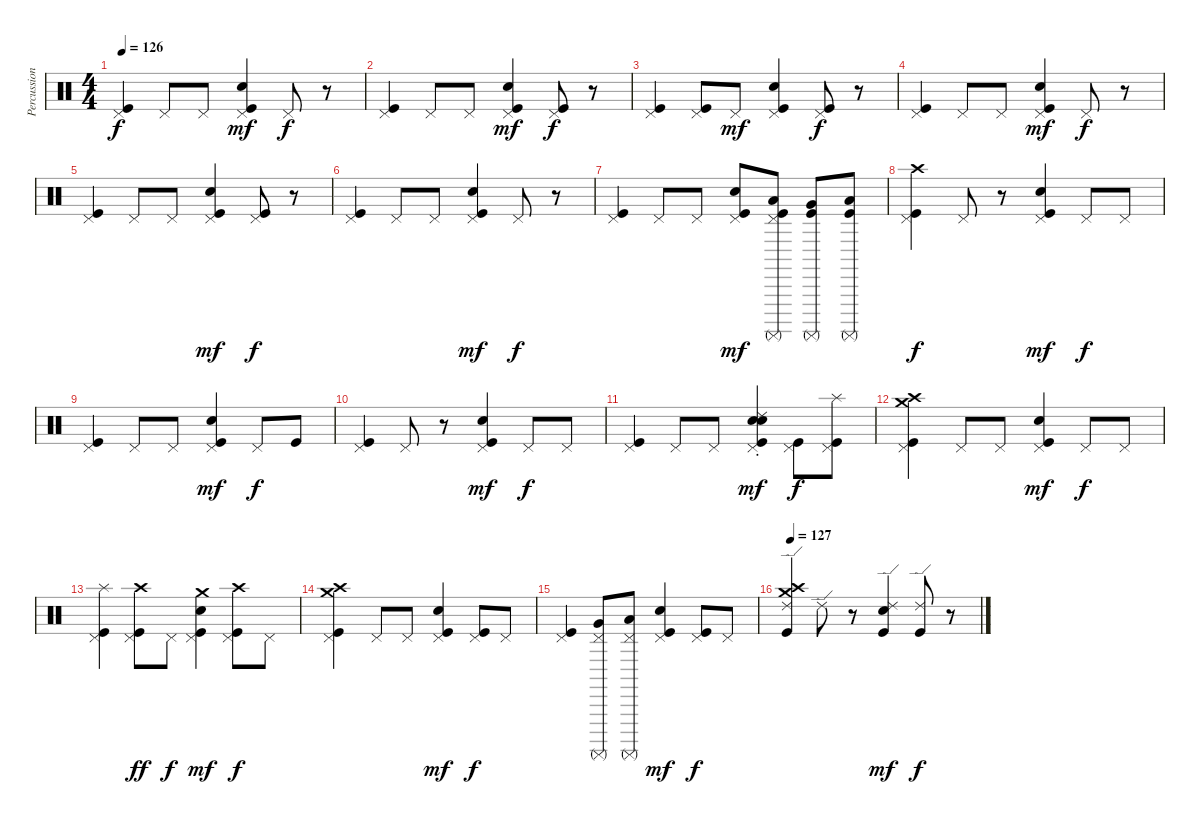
\track ("Percussion" "Percussion") {instrument percussion}
\staff {score}
\articulation defaults
\ts (4 4)
\tempo 126
\clef neutral
\ks c
("Pedal Hi-Hat (hit)" "Kick (hit)").4{dy f} "Pedal Hi-Hat (hit)".8 "Pedal Hi-Hat (hit)".8 ("Pedal Hi-Hat (hit)" "Kick (hit)" "Electric Snare (hit)").4{dy mf} "Pedal Hi-Hat (hit)".8{dy f} r.8 |
("Pedal Hi-Hat (hit)" "Kick (hit)").4 "Pedal Hi-Hat (hit)".8 "Pedal Hi-Hat (hit)".8 ("Pedal Hi-Hat (hit)" "Electric Snare (hit)" "Kick (hit)").4{dy mf} ("Pedal Hi-Hat (hit)" "Kick (hit)").8{dy f} r.8 |
("Pedal Hi-Hat (hit)" "Kick (hit)").4 ("Pedal Hi-Hat (hit)" "Kick (hit)").8 "Pedal Hi-Hat (hit)".8{dy mf} ("Pedal Hi-Hat (hit)" "Kick (hit)" "Electric Snare (hit)").4 ("Pedal Hi-Hat (hit)" "Kick (hit)").8{dy f} r.8 |
("Pedal Hi-Hat (hit)" "Kick (hit)").4 "Pedal Hi-Hat (hit)".8 "Pedal Hi-Hat (hit)".8 ("Pedal Hi-Hat (hit)" "Kick (hit)" "Electric Snare (hit)").4{dy mf} "Pedal Hi-Hat (hit)".8{dy f} r.8 |
("Pedal Hi-Hat (hit)" "Kick (hit)").4 "Pedal Hi-Hat (hit)".8 "Pedal Hi-Hat (hit)".8 ("Pedal Hi-Hat (hit)" "Electric Snare (hit)" "Kick (hit)").4{dy mf} ("Pedal Hi-Hat (hit)" "Kick (hit)").8{dy f} r.8 |
("Pedal Hi-Hat (hit)" "Kick (hit)").4 "Pedal Hi-Hat (hit)".8 "Pedal Hi-Hat (hit)".8 ("Pedal Hi-Hat (hit)" "Kick (hit)" "Electric Snare (hit)").4{dy mf} "Pedal Hi-Hat (hit)".8{dy f} r.8 |
("Pedal Hi-Hat (hit)" "Kick (hit)").4 "Pedal Hi-Hat (hit)".8 "Pedal Hi-Hat (hit)".8 ("Pedal Hi-Hat (hit)" "Electric Snare (hit)" "Kick (hit)").8{dy mf} ("Low Tom (hit)" "Pedal Hi-Hat (hit)" "Kick (hit)" "Surdo (mute)").8 ("Very Low Tom (hit)" "Kick (hit)" "Surdo (mute)").8 ("Low Floor Tom (hit)" "Kick (hit)" "Surdo (mute)").8 |
("Pedal Hi-Hat (hit)" "Kick (hit)" "Crash high (hit)").4{dy f} "Pedal Hi-Hat (hit)".8 r.8 ("Pedal Hi-Hat (hit)" "Kick (hit)" "Electric Snare (hit)").4{dy mf} "Pedal Hi-Hat (hit)".8{dy f} "Pedal Hi-Hat (hit)".8 |
("Pedal Hi-Hat (hit)" "Kick (hit)").4 "Pedal Hi-Hat (hit)".8 "Pedal Hi-Hat (hit)".8 ("Pedal Hi-Hat (hit)" "Electric Snare (hit)" "Kick (hit)").4{dy mf} "Pedal Hi-Hat (hit)".8{dy f} "Kick (hit)".8 |
("Pedal Hi-Hat (hit)" "Kick (hit)").4 "Pedal Hi-Hat (hit)".8 r.8 ("Pedal Hi-Hat (hit)" "Kick (hit)" "Electric Snare (hit)").4{dy mf} "Pedal Hi-Hat (hit)".8{dy f} "Pedal Hi-Hat (hit)".8 |
("Pedal Hi-Hat (hit)" "Kick (hit)").4 "Pedal Hi-Hat (hit)".8 "Pedal Hi-Hat (hit)".8 ("Ride (choke) 2" "Pedal Hi-Hat (hit)" "Kick (hit)" "Electric Snare (hit)" "Hand Clap (hit)").4{dy mf} ("Pedal Hi-Hat (hit)" "Kick (hit)").8{dy f} ("Kick (hit)" "Pedal Hi-Hat (hit)" "Splash (hit)").8 |
("Pedal Hi-Hat (hit)" "Kick (hit)" "Crash medium (hit)" "Crash high (hit)").4 "Pedal Hi-Hat (hit)".8 "Pedal Hi-Hat (hit)".8 ("Pedal Hi-Hat (hit)" "Kick (hit)" "Electric Snare (hit)").4{dy mf} "Pedal Hi-Hat (hit)".8{dy f} "Pedal Hi-Hat (hit)".8 |
("Pedal Hi-Hat (hit)" "Kick (hit)" "Splash (hit)").4 ("Kick (hit)" "Pedal Hi-Hat (hit)" "Crash high (hit)").8{dy ff} "Pedal Hi-Hat (hit)".8{dy f} ("Pedal Hi-Hat (hit)" "Crash medium (hit)" "Electric Snare (hit)" "Kick (hit)").4{dy mf} ("Kick (hit)" "Pedal Hi-Hat (hit)" "Crash high (hit)").8{dy f} "Pedal Hi-Hat (hit)".8 |
("Pedal Hi-Hat (hit)" "Kick (hit)" "Crash medium (hit)" "Crash high (hit)").4 "Pedal Hi-Hat (hit)".8 "Pedal Hi-Hat (hit)".8 ("Pedal Hi-Hat (hit)" "Kick (hit)" "Electric Snare (hit)").4{dy mf} ("Pedal Hi-Hat (hit)" "Kick (hit)").8{dy f} "Pedal Hi-Hat (hit)".8 |
("Pedal Hi-Hat (hit)" "Kick (hit)").4 ("Pedal Hi-Hat (hit)" "Very Low Tom (hit)" "Surdo (mute)").8 ("Pedal Hi-Hat (hit)" "Low Floor Tom (hit)" "Surdo (mute)").8 ("Pedal Hi-Hat (hit)" "Kick (hit)" "Electric Snare (hit)").4{dy mf} ("Pedal Hi-Hat (hit)" "Kick (hit)").8{dy f} "Pedal Hi-Hat (hit)".8 |
\tempo 127
("Ride (edge) 2" "Kick (hit)" "Crash medium (hit)" "Crash high (hit)").4 "Ride (edge) 2".8 r.8 ("Ride (edge) 2" "Kick (hit)" "Electric Snare (hit)").4{dy mf} ("Ride (edge) 2" "Kick (hit)").8{dy f} r.8
